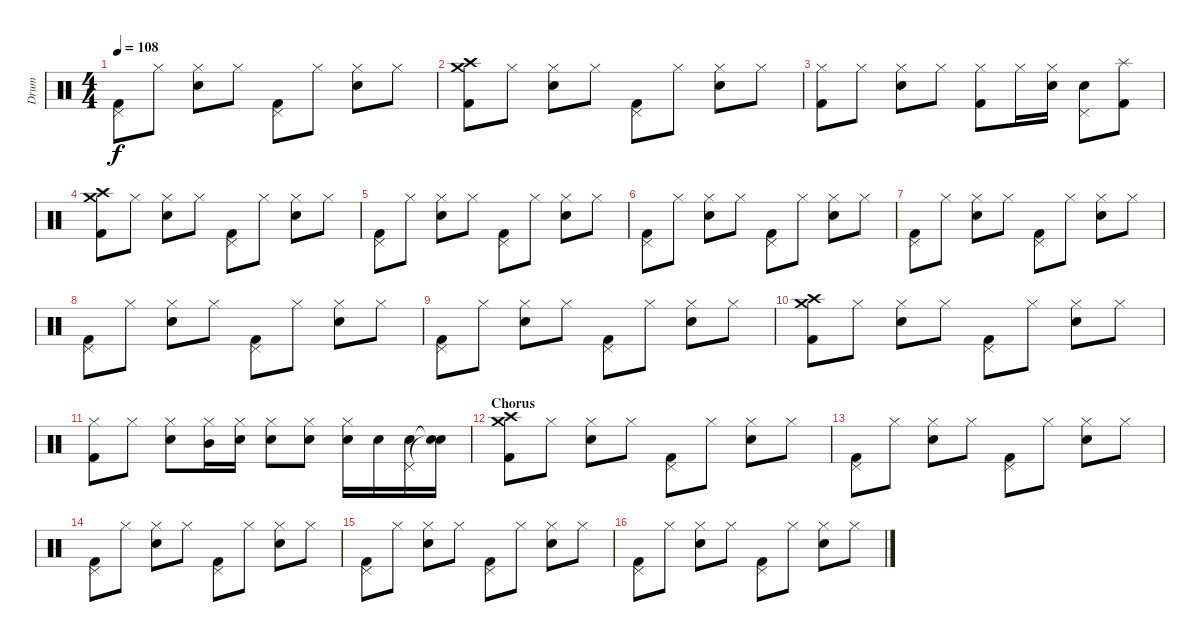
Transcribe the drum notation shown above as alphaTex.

\track ("Drum" "Drum") {instrument percussion}
\staff {score}
\articulation defaults
\ts (4 4)
\tempo 108
\clef neutral
\ks c
("Pedal Hi-Hat (hit)" "Kick (hit) 2").8{dy f} "Hi-Hat (closed)".8 ("Hi-Hat (closed)" "Electric Snare (hit)").8 "Hi-Hat (closed)".8 ("Pedal Hi-Hat (hit)" "Kick (hit) 2").8 "Hi-Hat (closed)".8 ("Hi-Hat (closed)" "Electric Snare (hit)").8 "Hi-Hat (closed)".8 |
("Kick (hit) 2" "Crash high (hit)" "Crash medium (hit)").8 "Hi-Hat (closed)".8 ("Hi-Hat (closed)" "Electric Snare (hit)").8 "Hi-Hat (closed)".8 ("Pedal Hi-Hat (hit)" "Kick (hit) 2").8 "Hi-Hat (closed)".8 ("Hi-Hat (closed)" "Electric Snare (hit)").8 "Hi-Hat (closed)".8 |
("Hi-Hat (closed)" "Kick (hit) 2").8 "Hi-Hat (closed)".8 ("Hi-Hat (closed)" "Electric Snare (hit)").8 "Hi-Hat (closed)".8 ("Hi-Hat (closed)" "Kick (hit) 2").8 "Hi-Hat (closed)".16 ("Hi-Hat (closed)" "Electric Snare (hit)").16 ("Pedal Hi-Hat (hit)" "Electric Snare (hit)").8 ("Splash (hit)" "Kick (hit) 2").8 |
("Kick (hit) 2" "Crash high (hit)" "Crash medium (hit)").8 "Hi-Hat (closed)".8 ("Hi-Hat (closed)" "Electric Snare (hit)").8 "Hi-Hat (closed)".8 ("Pedal Hi-Hat (hit)" "Kick (hit) 2").8 "Hi-Hat (closed)".8 ("Hi-Hat (closed)" "Electric Snare (hit)").8 "Hi-Hat (closed)".8 |
("Pedal Hi-Hat (hit)" "Kick (hit) 2").8 "Hi-Hat (closed)".8 ("Hi-Hat (closed)" "Electric Snare (hit)").8 "Hi-Hat (closed)".8 ("Pedal Hi-Hat (hit)" "Kick (hit) 2").8 "Hi-Hat (closed)".8 ("Hi-Hat (closed)" "Electric Snare (hit)").8 "Hi-Hat (closed)".8 |
("Pedal Hi-Hat (hit)" "Kick (hit) 2").8 "Hi-Hat (closed)".8 ("Hi-Hat (closed)" "Electric Snare (hit)").8 "Hi-Hat (closed)".8 ("Pedal Hi-Hat (hit)" "Kick (hit) 2").8 "Hi-Hat (closed)".8 ("Hi-Hat (closed)" "Electric Snare (hit)").8 "Hi-Hat (closed)".8 |
("Pedal Hi-Hat (hit)" "Kick (hit) 2").8 "Hi-Hat (closed)".8 ("Hi-Hat (closed)" "Electric Snare (hit)").8 "Hi-Hat (closed)".8 ("Pedal Hi-Hat (hit)" "Kick (hit) 2").8 "Hi-Hat (closed)".8 ("Hi-Hat (closed)" "Electric Snare (hit)").8 "Hi-Hat (closed)".8 |
("Pedal Hi-Hat (hit)" "Kick (hit) 2").8 "Hi-Hat (closed)".8 ("Hi-Hat (closed)" "Electric Snare (hit)").8 "Hi-Hat (closed)".8 ("Pedal Hi-Hat (hit)" "Kick (hit) 2").8 "Hi-Hat (closed)".8 ("Hi-Hat (closed)" "Electric Snare (hit)").8 "Hi-Hat (closed)".8 |
("Pedal Hi-Hat (hit)" "Kick (hit) 2").8 "Hi-Hat (closed)".8 ("Hi-Hat (closed)" "Electric Snare (hit)").8 "Hi-Hat (closed)".8 ("Pedal Hi-Hat (hit)" "Kick (hit) 2").8 "Hi-Hat (closed)".8 ("Hi-Hat (closed)" "Electric Snare (hit)").8 "Hi-Hat (closed)".8 |
("Kick (hit) 2" "Crash high (hit)" "Crash medium (hit)").8 "Hi-Hat (closed)".8 ("Hi-Hat (closed)" "Electric Snare (hit)").8 "Hi-Hat (closed)".8 ("Pedal Hi-Hat (hit)" "Kick (hit) 2").8 "Hi-Hat (closed)".8 ("Hi-Hat (closed)" "Electric Snare (hit)").8 "Hi-Hat (closed)".8 |
("Hi-Hat (closed)" "Kick (hit) 2").8 "Hi-Hat (closed)".8 ("Hi-Hat (closed)" "Electric Snare (hit)").8 ("Hi-Hat (closed)" "Mid Tom (hit)").16 ("Hi-Hat (closed)" "Electric Snare (hit)").16 ("Hi-Hat (closed)" "Electric Snare (hit)").8 ("Hi-Hat (closed)" "Electric Snare (hit)").8 ("Hi-Hat (closed)" "Electric Snare (hit)").16 "Electric Snare (hit)".16 ("Pedal Hi-Hat (hit)" "Electric Snare (hit)").16 ("Snare (hit)"{t} "Snare (hit)"{t}).16 |
\section ("" "Chorus")
("Kick (hit) 2" "Crash high (hit)" "Crash medium (hit)").8 "Hi-Hat (closed)".8 ("Hi-Hat (closed)" "Electric Snare (hit)").8 "Hi-Hat (closed)".8 ("Pedal Hi-Hat (hit)" "Kick (hit) 2").8 "Hi-Hat (closed)".8 ("Hi-Hat (closed)" "Electric Snare (hit)").8 "Hi-Hat (closed)".8 |
("Pedal Hi-Hat (hit)" "Kick (hit) 2").8 "Hi-Hat (closed)".8 ("Hi-Hat (closed)" "Electric Snare (hit)").8 "Hi-Hat (closed)".8 ("Pedal Hi-Hat (hit)" "Kick (hit) 2").8 "Hi-Hat (closed)".8 ("Hi-Hat (closed)" "Electric Snare (hit)").8 "Hi-Hat (closed)".8 |
("Pedal Hi-Hat (hit)" "Kick (hit) 2").8 "Hi-Hat (closed)".8 ("Hi-Hat (closed)" "Electric Snare (hit)").8 "Hi-Hat (closed)".8 ("Pedal Hi-Hat (hit)" "Kick (hit) 2").8 "Hi-Hat (closed)".8 ("Hi-Hat (closed)" "Electric Snare (hit)").8 "Hi-Hat (closed)".8 |
("Pedal Hi-Hat (hit)" "Kick (hit) 2").8 "Hi-Hat (closed)".8 ("Hi-Hat (closed)" "Electric Snare (hit)").8 "Hi-Hat (closed)".8 ("Pedal Hi-Hat (hit)" "Kick (hit) 2").8 "Hi-Hat (closed)".8 ("Hi-Hat (closed)" "Electric Snare (hit)").8 "Hi-Hat (closed)".8 |
("Pedal Hi-Hat (hit)" "Kick (hit) 2").8 "Hi-Hat (closed)".8 ("Hi-Hat (closed)" "Electric Snare (hit)").8 "Hi-Hat (closed)".8 ("Pedal Hi-Hat (hit)" "Kick (hit) 2").8 "Hi-Hat (closed)".8 ("Hi-Hat (closed)" "Electric Snare (hit)").8 "Hi-Hat (closed)".8
